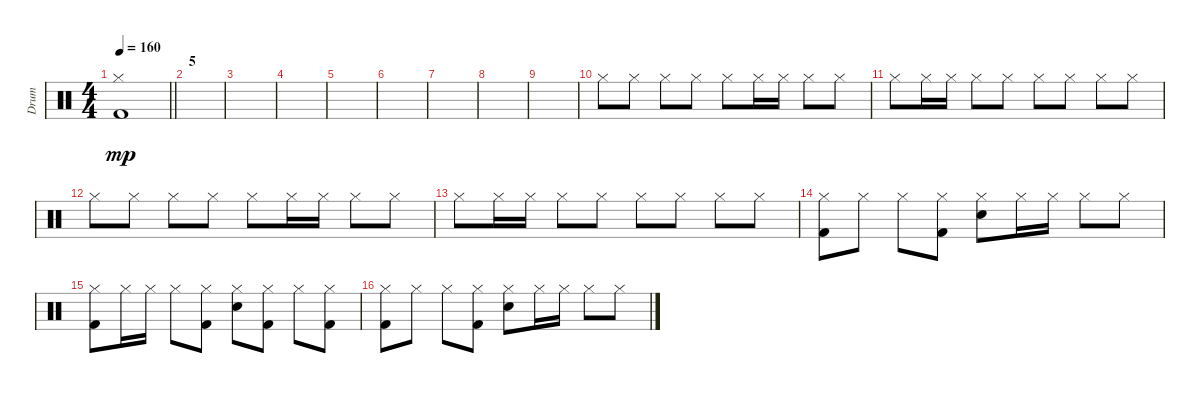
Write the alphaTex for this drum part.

\track ("Drum" "Drum") {instrument percussion}
\staff {score}
\articulation defaults
\ts (4 4)
\tempo 160
\clef neutral
\barLineRight lightlight
\ks c
("Hi-Hat (closed)" "Kick (hit) 2").1{dy mp} |
\section ("" "5")
|
|
|
|
|
|
|
|
"Hi-Hat (closed)".8{balance 14} "Hi-Hat (closed)".8 "Hi-Hat (closed)".8 "Hi-Hat (closed)".8 "Hi-Hat (closed)".8 "Hi-Hat (closed)".16 "Hi-Hat (closed)".16 "Hi-Hat (closed)".8 "Hi-Hat (closed)".8 |
"Hi-Hat (closed)".8 "Hi-Hat (closed)".16 "Hi-Hat (closed)".16 "Hi-Hat (closed)".8 "Hi-Hat (closed)".8 "Hi-Hat (closed)".8 "Hi-Hat (closed)".8 "Hi-Hat (closed)".8 "Hi-Hat (closed)".8 |
"Hi-Hat (closed)".8 "Hi-Hat (closed)".8 "Hi-Hat (closed)".8 "Hi-Hat (closed)".8 "Hi-Hat (closed)".8 "Hi-Hat (closed)".16 "Hi-Hat (closed)".16 "Hi-Hat (closed)".8 "Hi-Hat (closed)".8 |
"Hi-Hat (closed)".8 "Hi-Hat (closed)".16 "Hi-Hat (closed)".16 "Hi-Hat (closed)".8 "Hi-Hat (closed)".8 "Hi-Hat (closed)".8 "Hi-Hat (closed)".8 "Hi-Hat (closed)".8 "Hi-Hat (closed)".8 |
("Hi-Hat (closed)" "Kick (hit) 2").8{balance 10} "Hi-Hat (closed)".8 "Hi-Hat (closed)".8 ("Hi-Hat (closed)" "Kick (hit) 2").8 ("Hi-Hat (closed)" "Hand Clap (hit)").8 "Hi-Hat (closed)".16 "Hi-Hat (closed)".16 "Hi-Hat (closed)".8 "Hi-Hat (closed)".8 |
("Hi-Hat (closed)" "Kick (hit) 2").8 "Hi-Hat (closed)".16 "Hi-Hat (closed)".16 "Hi-Hat (closed)".8 ("Hi-Hat (closed)" "Kick (hit) 2").8 ("Hi-Hat (closed)" "Hand Clap (hit)").8 ("Hi-Hat (closed)" "Kick (hit) 2").8 "Hi-Hat (closed)".8 ("Hi-Hat (closed)" "Kick (hit) 2").8 |
("Hi-Hat (closed)" "Kick (hit) 2").8 "Hi-Hat (closed)".8 "Hi-Hat (closed)".8 ("Hi-Hat (closed)" "Kick (hit) 2").8 ("Hi-Hat (closed)" "Hand Clap (hit)").8 "Hi-Hat (closed)".16 "Hi-Hat (closed)".16 "Hi-Hat (closed)".8 "Hi-Hat (closed)".8
